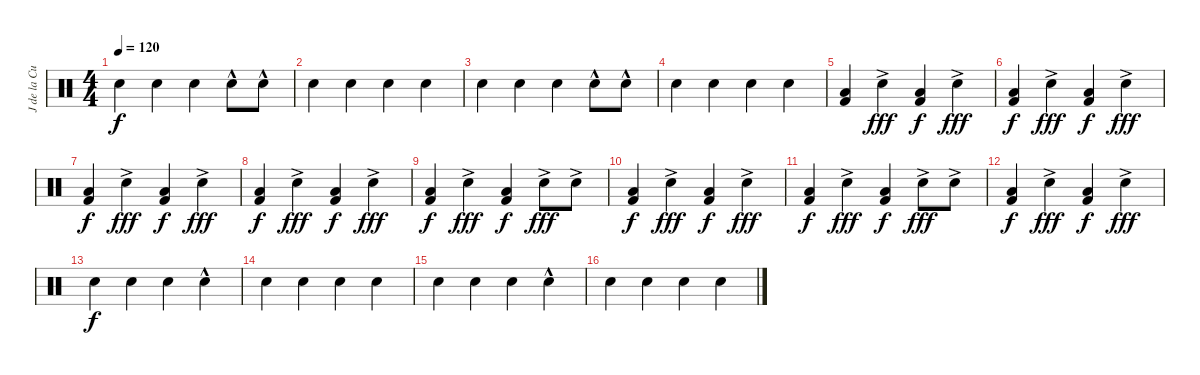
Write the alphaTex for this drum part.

\track ("J de la Cueva" "J de la Cu") {instrument percussion}
\staff {score}
\articulation defaults
\ts (4 4)
\tempo 120
\clef neutral
\ks c "Snare (hit) 2".4{dy f} "Snare (hit) 2".4 "Snare (hit) 2".4 "Snare (hit) 2"{hac}.8 "Electric Snare (hit)"{hac}.8
|
"Snare (hit) 2".4 "Snare (hit) 2".4 "Snare (hit) 2".4 "Snare (hit) 2".4 |
"Snare (hit) 2".4 "Snare (hit) 2".4 "Snare (hit) 2".4 "Snare (hit) 2"{hac}.8 "Electric Snare (hit)"{hac}.8 |
"Snare (hit) 2".4 "Snare (hit) 2".4 "Snare (hit) 2".4 "Snare (hit) 2".4 |
("Low Tom (hit)" "Kick (hit) 2").4 "Snare (hit) 2"{ac}.4{dy fff} ("Low Tom (hit)" "Kick (hit) 2").4{dy f} "Snare (hit) 2"{ac}.4{dy fff} |
("Low Tom (hit)" "Kick (hit) 2").4{dy f} "Snare (hit) 2"{ac}.4{dy fff} ("Low Tom (hit)" "Kick (hit) 2").4{dy f} "Snare (hit) 2"{ac}.4{dy fff} |
("Low Tom (hit)" "Kick (hit) 2").4{dy f} "Snare (hit) 2"{ac}.4{dy fff} ("Low Tom (hit)" "Kick (hit) 2").4{dy f} "Snare (hit) 2"{ac}.4{dy fff} |
("Low Tom (hit)" "Kick (hit) 2").4{dy f} "Snare (hit) 2"{ac}.4{dy fff} ("Low Tom (hit)" "Kick (hit) 2").4{dy f} "Snare (hit) 2"{ac}.4{dy fff} |
("Low Tom (hit)" "Kick (hit) 2").4{dy f} "Snare (hit) 2"{ac}.4{dy fff} ("Low Tom (hit)" "Kick (hit) 2").4{dy f} "Snare (hit) 2"{ac}.8{dy fff} "Electric Snare (hit)"{ac}.8 |
("Low Tom (hit)" "Kick (hit) 2").4{dy f} "Snare (hit) 2"{ac}.4{dy fff} ("Low Tom (hit)" "Kick (hit) 2").4{dy f} "Snare (hit) 2"{ac}.4{dy fff} |
("Low Tom (hit)" "Kick (hit) 2").4{dy f} "Snare (hit) 2"{ac}.4{dy fff} ("Low Tom (hit)" "Kick (hit) 2").4{dy f} "Snare (hit) 2"{ac}.8{dy fff} "Electric Snare (hit)"{ac}.8 |
("Low Tom (hit)" "Kick (hit) 2").4{dy f} "Snare (hit) 2"{ac}.4{dy fff} ("Low Tom (hit)" "Kick (hit) 2").4{dy f} "Snare (hit) 2"{ac}.4{dy fff} |
"Snare (hit) 2".4{dy f} "Snare (hit) 2".4 "Snare (hit) 2".4 "Snare (hit) 2"{hac}.4 |
"Snare (hit) 2".4 "Snare (hit) 2".4 "Snare (hit) 2".4 "Snare (hit) 2".4 |
"Snare (hit) 2".4 "Snare (hit) 2".4 "Snare (hit) 2".4 "Snare (hit) 2"{hac}.4 |
"Snare (hit) 2".4 "Snare (hit) 2".4 "Snare (hit) 2".4 "Snare (hit) 2".4
